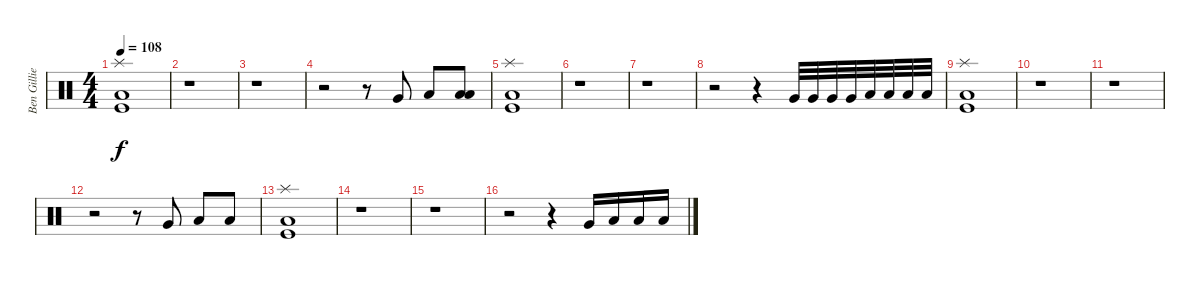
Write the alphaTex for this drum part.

\track ("Ben Gillies (percus)" "Ben Gillie") {instrument percussion}
\staff {score}
\articulation defaults
\ts (4 4)
\tempo 108
\clef neutral
\ks c
("Splash (hit)" "Low Floor Tom (hit)" "Kick (hit)").1{dy f} |
r.1 |
r.1 |
r.2 r.8 "Very Low Tom (hit)".8 "Low Floor Tom (hit)".8 ("Low Floor Tom (hit)" "Low Floor Tom (hit)").8 |
("Splash (hit)" "Low Floor Tom (hit)" "Kick (hit)").1 |
r.1 |
r.1 |
r.2 r.4 "Very Low Tom (hit)".32 "Very Low Tom (hit)".32 "Very Low Tom (hit)".32 "Very Low Tom (hit)".32 "Low Floor Tom (hit)".32 "Low Floor Tom (hit)".32 "Low Floor Tom (hit)".32 "Low Floor Tom (hit)".32 |
("Splash (hit)" "Low Floor Tom (hit)" "Kick (hit)").1 |
r.1 |
r.1 |
r.2 r.8 "Very Low Tom (hit)".8 "Low Floor Tom (hit)".8 "Low Floor Tom (hit)".8 |
("Splash (hit)" "Low Floor Tom (hit)" "Kick (hit)").1 |
r.1 |
r.1 |
r.2 r.4 "Very Low Tom (hit)".16 "Low Floor Tom (hit)".16 "Low Floor Tom (hit)".16 "Low Floor Tom (hit)".16
